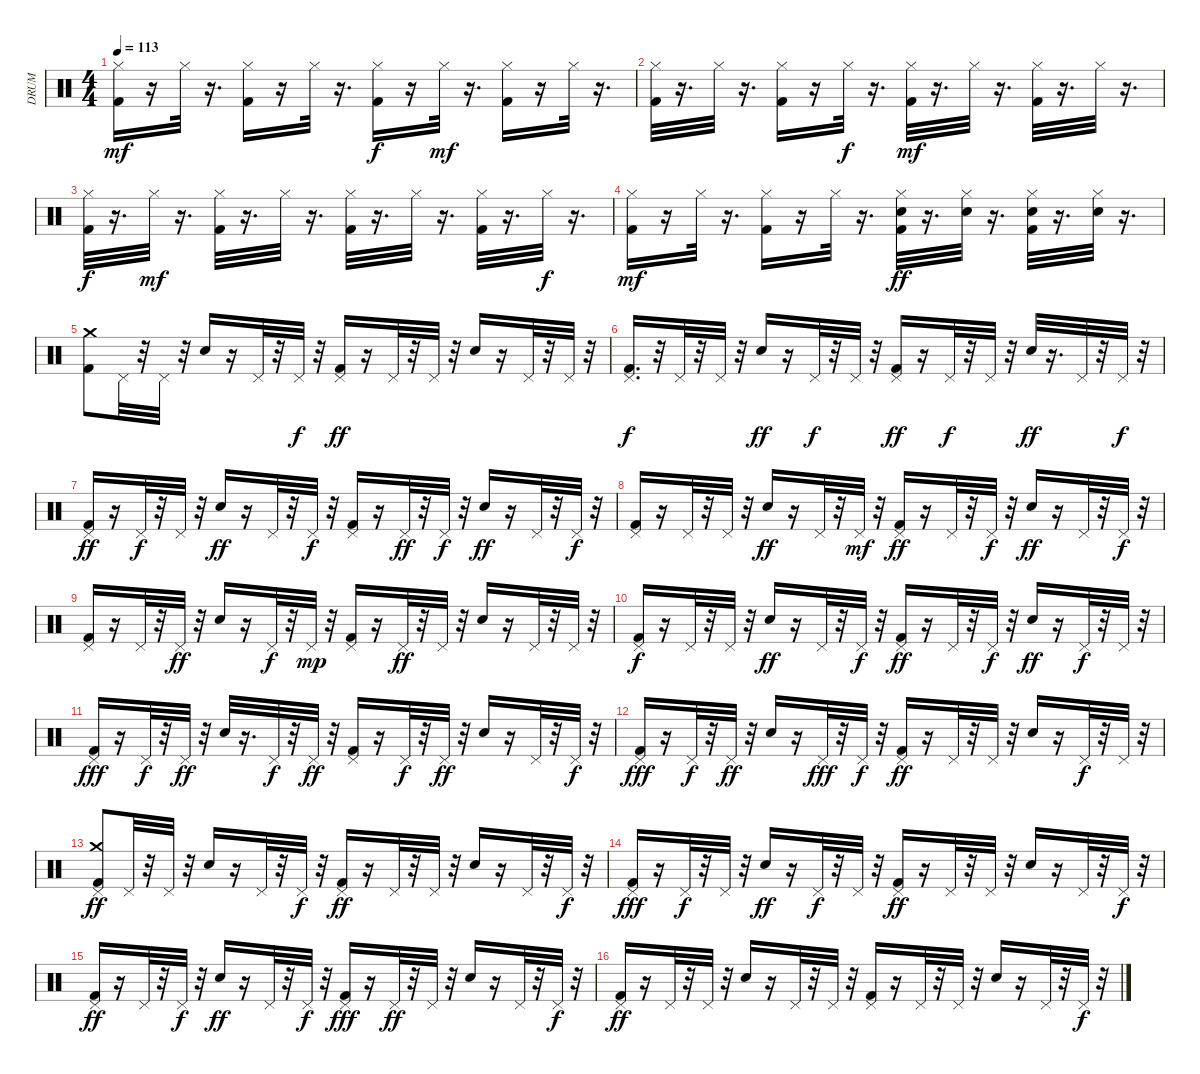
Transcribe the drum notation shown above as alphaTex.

\track ("DRUM" "DRUM") {instrument percussion}
\staff {score}
\articulation defaults
\ts (4 4)
\tempo 113
\clef neutral
\ks c
("Kick (hit) 2" "Hi-Hat (closed)").16{dy mf} r.16 "Hi-Hat (closed)".32 r.16{d} ("Hi-Hat (closed)" "Kick (hit) 2").16 r.16 "Hi-Hat (closed)".32 r.16{d} ("Hi-Hat (closed)" "Kick (hit) 2").16{dy f} r.16 "Hi-Hat (closed)".32{dy mf} r.16{d} ("Hi-Hat (closed)" "Kick (hit) 2").16 r.16 "Hi-Hat (closed)".32 r.16{d} |
("Hi-Hat (closed)" "Kick (hit) 2").32 r.16{d} "Hi-Hat (closed)".32 r.16{d} ("Hi-Hat (closed)" "Kick (hit) 2").16 r.16 "Hi-Hat (closed)".32{dy f} r.16{d} ("Hi-Hat (closed)" "Kick (hit) 2").32{dy mf} r.16{d} "Hi-Hat (closed)".32 r.16{d} ("Hi-Hat (closed)" "Kick (hit) 2").32 r.16{d} "Hi-Hat (closed)".32 r.16{d} |
("Hi-Hat (closed)" "Kick (hit) 2").32{dy f} r.16{d} "Hi-Hat (closed)".32{dy mf} r.16{d} ("Hi-Hat (closed)" "Kick (hit) 2").32 r.16{d} "Hi-Hat (closed)".32 r.16{d} ("Kick (hit) 2" "Hi-Hat (closed)").32 r.16{d} "Hi-Hat (closed)".32 r.16{d} ("Kick (hit) 2" "Hi-Hat (closed)").32 r.16{d} "Hi-Hat (closed)".32{dy f} r.16{d} |
("Kick (hit) 2" "Hi-Hat (closed)").16{dy mf} r.16 "Hi-Hat (closed)".32 r.16{d} ("Hi-Hat (closed)" "Kick (hit) 2").16 r.16 "Hi-Hat (closed)".32 r.16{d} ("Kick (hit) 2" "Hi-Hat (closed)" "Snare (hit) 2").32{dy ff} r.16{d} ("Hi-Hat (closed)" "Snare (hit) 2").32 r.16{d} ("Hi-Hat (closed)" "Snare (hit) 2" "Kick (hit) 2").32 r.16{d} ("Hi-Hat (closed)" "Snare (hit) 2").32 r.16{d} |
("Crash medium (hit)" "Kick (hit) 2").8 "Pedal Hi-Hat (hit)".32 r.32 "Pedal Hi-Hat (hit)".32 r.32 "Snare (hit) 2".16 r.16 "Pedal Hi-Hat (hit)".32 r.32 "Pedal Hi-Hat (hit)".32{dy f} r.32 ("Pedal Hi-Hat (hit)" "Kick (hit) 2").16{dy ff} r.16 "Pedal Hi-Hat (hit)".32 r.32 "Pedal Hi-Hat (hit)".32 r.32 "Snare (hit) 2".16 r.16 "Pedal Hi-Hat (hit)".32 r.32 "Pedal Hi-Hat (hit)".32 r.32 |
("Pedal Hi-Hat (hit)" "Kick (hit) 2").16{d dy f} r.32 "Pedal Hi-Hat (hit)".32 r.32 "Pedal Hi-Hat (hit)".32 r.32 "Snare (hit) 2".16{dy ff} r.16 "Pedal Hi-Hat (hit)".32{dy f} r.32 "Pedal Hi-Hat (hit)".32 r.32 ("Pedal Hi-Hat (hit)" "Kick (hit) 2").16{dy ff} r.16 "Pedal Hi-Hat (hit)".32{dy f} r.32 "Pedal Hi-Hat (hit)".32 r.32 "Snare (hit) 2".32{dy ff} r.16{d} "Pedal Hi-Hat (hit)".32 r.32 "Pedal Hi-Hat (hit)".32{dy f} r.32 |
("Pedal Hi-Hat (hit)" "Kick (hit) 2").16{dy ff} r.16 "Pedal Hi-Hat (hit)".32{dy f} r.32 "Pedal Hi-Hat (hit)".32 r.32 "Snare (hit) 2".16{dy ff} r.16 "Pedal Hi-Hat (hit)".32 r.32 "Pedal Hi-Hat (hit)".32{dy f} r.32 ("Pedal Hi-Hat (hit)" "Kick (hit) 2").16 r.16 "Pedal Hi-Hat (hit)".32{dy ff} r.32 "Pedal Hi-Hat (hit)".32{dy f} r.32 "Snare (hit) 2".16{dy ff} r.16 "Pedal Hi-Hat (hit)".32 r.32 "Pedal Hi-Hat (hit)".32{dy f} r.32 |
("Pedal Hi-Hat (hit)" "Kick (hit) 2").16 r.16 "Pedal Hi-Hat (hit)".32 r.32 "Pedal Hi-Hat (hit)".32 r.32 "Snare (hit) 2".16{dy ff} r.16 "Pedal Hi-Hat (hit)".32 r.32 "Pedal Hi-Hat (hit)".32{dy mf} r.32 ("Pedal Hi-Hat (hit)" "Kick (hit) 2").16{dy ff} r.16 "Pedal Hi-Hat (hit)".32 r.32 "Pedal Hi-Hat (hit)".32{dy f} r.32 "Snare (hit) 2".16{dy ff} r.16 "Pedal Hi-Hat (hit)".32 r.32 "Pedal Hi-Hat (hit)".32{dy f} r.32 |
("Pedal Hi-Hat (hit)" "Kick (hit) 2").16 r.16 "Pedal Hi-Hat (hit)".32 r.32 "Pedal Hi-Hat (hit)".32{dy ff} r.32 "Snare (hit) 2".16 r.16 "Pedal Hi-Hat (hit)".32{dy f} r.32 "Pedal Hi-Hat (hit)".32{dy mp} r.32 ("Pedal Hi-Hat (hit)" "Kick (hit) 2").16 r.16 "Pedal Hi-Hat (hit)".32{dy ff} r.32 "Pedal Hi-Hat (hit)".32 r.32 "Snare (hit) 2".16 r.16 "Pedal Hi-Hat (hit)".32 r.32 "Pedal Hi-Hat (hit)".32 r.32 |
("Pedal Hi-Hat (hit)" "Kick (hit) 2").16{dy f} r.16 "Pedal Hi-Hat (hit)".32 r.32 "Pedal Hi-Hat (hit)".32 r.32 "Snare (hit) 2".16{dy ff} r.16 "Pedal Hi-Hat (hit)".32 r.32 "Pedal Hi-Hat (hit)".32{dy f} r.32 ("Pedal Hi-Hat (hit)" "Kick (hit) 2").16{dy ff} r.16 "Pedal Hi-Hat (hit)".32 r.32 "Pedal Hi-Hat (hit)".32{dy f} r.32 "Snare (hit) 2".16{dy ff} r.16 "Pedal Hi-Hat (hit)".32{dy f} r.32 "Pedal Hi-Hat (hit)".32 r.32 |
("Pedal Hi-Hat (hit)" "Kick (hit) 2").16{dy fff} r.16 "Pedal Hi-Hat (hit)".32{dy f} r.32 "Pedal Hi-Hat (hit)".32{dy ff} r.32 "Snare (hit) 2".32 r.16{d} "Pedal Hi-Hat (hit)".32{dy f} r.32 "Pedal Hi-Hat (hit)".32{dy ff} r.32 ("Pedal Hi-Hat (hit)" "Kick (hit) 2").16 r.16 "Pedal Hi-Hat (hit)".32{dy f} r.32 "Pedal Hi-Hat (hit)".32{dy ff} r.32 "Snare (hit) 2".16 r.16 "Pedal Hi-Hat (hit)".32 r.32 "Pedal Hi-Hat (hit)".32{dy f} r.32 |
("Pedal Hi-Hat (hit)" "Kick (hit) 2").16{dy fff} r.16 "Pedal Hi-Hat (hit)".32{dy f} r.32 "Pedal Hi-Hat (hit)".32{dy ff} r.32 "Snare (hit) 2".16 r.16 "Pedal Hi-Hat (hit)".32{dy fff} r.32 "Pedal Hi-Hat (hit)".32{dy f} r.32 ("Pedal Hi-Hat (hit)" "Kick (hit) 2").16{dy ff} r.16 "Pedal Hi-Hat (hit)".32 r.32 "Pedal Hi-Hat (hit)".32 r.32 "Snare (hit) 2".16 r.16 "Pedal Hi-Hat (hit)".32{dy f} r.32 "Pedal Hi-Hat (hit)".32 r.32 |
("Crash medium (hit)" "Pedal Hi-Hat (hit)" "Kick (hit) 2").8{dy ff} "Pedal Hi-Hat (hit)".32 r.32 "Pedal Hi-Hat (hit)".32 r.32 "Snare (hit) 2".16 r.16 "Pedal Hi-Hat (hit)".32 r.32 "Pedal Hi-Hat (hit)".32{dy f} r.32 ("Pedal Hi-Hat (hit)" "Kick (hit) 2").16{dy ff} r.16 "Pedal Hi-Hat (hit)".32 r.32 "Pedal Hi-Hat (hit)".32 r.32 "Snare (hit) 2".16 r.16 "Pedal Hi-Hat (hit)".32 r.32 "Pedal Hi-Hat (hit)".32{dy f} r.32 |
("Pedal Hi-Hat (hit)" "Kick (hit) 2").16{dy fff} r.16 "Pedal Hi-Hat (hit)".32{dy f} r.32 "Pedal Hi-Hat (hit)".32 r.32 "Snare (hit) 2".16{dy ff} r.16 "Pedal Hi-Hat (hit)".32{dy f} r.32 "Pedal Hi-Hat (hit)".32 r.32 ("Pedal Hi-Hat (hit)" "Kick (hit) 2").16{dy ff} r.16 "Pedal Hi-Hat (hit)".32 r.32 "Pedal Hi-Hat (hit)".32 r.32 "Snare (hit) 2".16 r.16 "Pedal Hi-Hat (hit)".32 r.32 "Pedal Hi-Hat (hit)".32{dy f} r.32 |
("Pedal Hi-Hat (hit)" "Kick (hit) 2").16{dy ff} r.16 "Pedal Hi-Hat (hit)".32 r.32 "Pedal Hi-Hat (hit)".32{dy f} r.32 "Snare (hit) 2".16{dy ff} r.16 "Pedal Hi-Hat (hit)".32 r.32 "Pedal Hi-Hat (hit)".32{dy f} r.32 ("Pedal Hi-Hat (hit)" "Kick (hit) 2").16{dy fff} r.16 "Pedal Hi-Hat (hit)".32{dy ff} r.32 "Pedal Hi-Hat (hit)".32 r.32 "Snare (hit) 2".16 r.16 "Pedal Hi-Hat (hit)".32 r.32 "Pedal Hi-Hat (hit)".32{dy f} r.32 |
("Pedal Hi-Hat (hit)" "Kick (hit) 2").16{dy ff} r.16 "Pedal Hi-Hat (hit)".32 r.32 "Pedal Hi-Hat (hit)".32 r.32 "Snare (hit) 2".16 r.16 "Pedal Hi-Hat (hit)".32 r.32 "Pedal Hi-Hat (hit)".32 r.32 ("Pedal Hi-Hat (hit)" "Kick (hit) 2").16 r.16 "Pedal Hi-Hat (hit)".32 r.32 "Pedal Hi-Hat (hit)".32 r.32 "Snare (hit) 2".16 r.16 "Pedal Hi-Hat (hit)".32 r.32 "Pedal Hi-Hat (hit)".32{dy f} r.32
